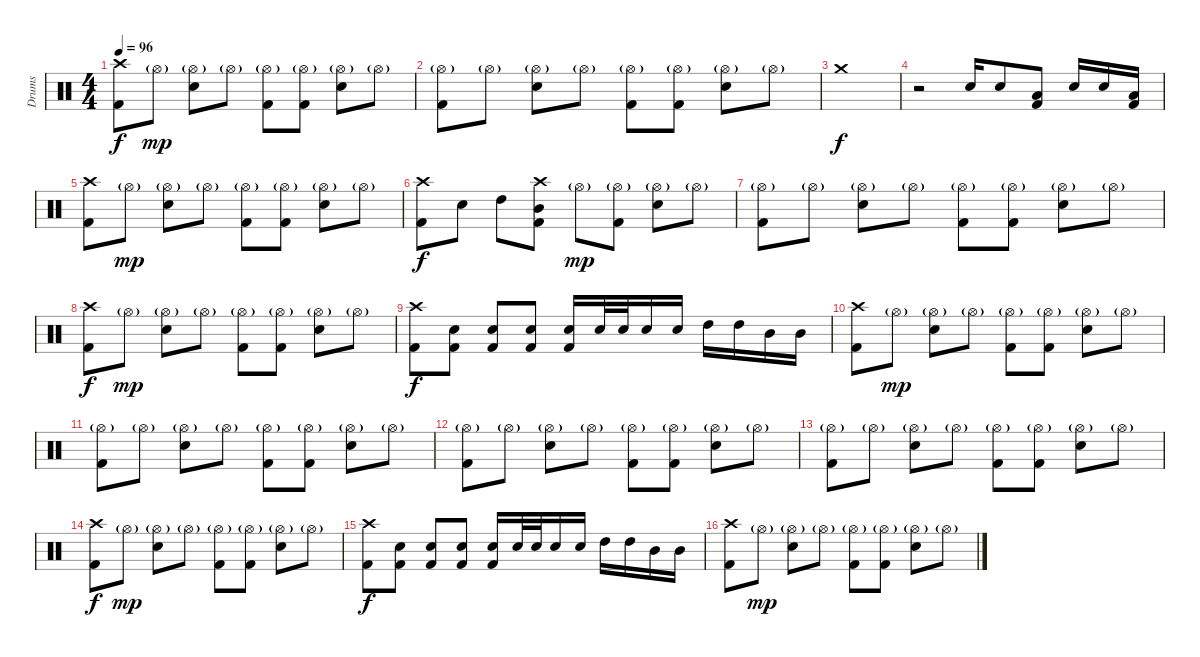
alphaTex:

\track ("Drums" "Drums") {instrument percussion}
\staff {score}
\articulation defaults
\ts (4 4)
\tempo 96
\clef neutral
\ks c
("Crash high (hit)" "Kick (hit) 2").8{dy f} "Hi-Hat (open)"{g}.8{dy mp} ("Hi-Hat (open)"{g} "Electric Snare (hit)").8 "Hi-Hat (open)"{g}.8 ("Hi-Hat (open)"{g} "Kick (hit) 2").8 ("Hi-Hat (open)"{g} "Kick (hit) 2").8 ("Hi-Hat (open)"{g} "Electric Snare (hit)").8 "Hi-Hat (open)"{g}.8 |
("Hi-Hat (open)"{g} "Kick (hit) 2").8 "Hi-Hat (open)"{g}.8 ("Hi-Hat (open)"{g} "Electric Snare (hit)").8 "Hi-Hat (open)"{g}.8 ("Hi-Hat (open)"{g} "Kick (hit) 2").8 ("Hi-Hat (open)"{g} "Kick (hit) 2").8 ("Hi-Hat (open)"{g} "Electric Snare (hit)").8 "Hi-Hat (open)"{g}.8 |
"Crash medium (hit)".1{dy f} |
r.2 "Electric Snare (hit)".16 "Electric Snare (hit)".8 ("Low Tom (hit)" "Kick (hit) 2").8 "Electric Snare (hit)".16 "Electric Snare (hit)".16 ("Low Tom (hit)" "Kick (hit) 2").16 |
("Crash high (hit)" "Kick (hit) 2").8 "Hi-Hat (open)"{g}.8{dy mp} ("Hi-Hat (open)"{g} "Electric Snare (hit)").8 "Hi-Hat (open)"{g}.8 ("Hi-Hat (open)"{g} "Kick (hit) 2").8 ("Hi-Hat (open)"{g} "Kick (hit) 2").8 ("Hi-Hat (open)"{g} "Electric Snare (hit)").8 "Hi-Hat (open)"{g}.8 |
("Crash high (hit)" "Kick (hit) 2").8{dy f} "Electric Snare (hit)".8 "High Tom (hit)".8 ("Crash high (hit)" "Mid Tom (hit)" "Kick (hit) 2").8 "Hi-Hat (open)"{g}.8{dy mp} ("Hi-Hat (open)"{g} "Kick (hit) 2").8 ("Hi-Hat (open)"{g} "Electric Snare (hit)").8 "Hi-Hat (open)"{g}.8 |
("Hi-Hat (open)"{g} "Kick (hit) 2").8 "Hi-Hat (open)"{g}.8 ("Hi-Hat (open)"{g} "Electric Snare (hit)").8 "Hi-Hat (open)"{g}.8 ("Hi-Hat (open)"{g} "Kick (hit) 2").8 ("Hi-Hat (open)"{g} "Kick (hit) 2").8 ("Hi-Hat (open)"{g} "Electric Snare (hit)").8 "Hi-Hat (open)"{g}.8 |
("Crash high (hit)" "Kick (hit) 2").8{dy f} "Hi-Hat (open)"{g}.8{dy mp} ("Hi-Hat (open)"{g} "Electric Snare (hit)").8 "Hi-Hat (open)"{g}.8 ("Hi-Hat (open)"{g} "Kick (hit) 2").8 ("Hi-Hat (open)"{g} "Kick (hit) 2").8 ("Hi-Hat (open)"{g} "Electric Snare (hit)").8 "Hi-Hat (open)"{g}.8 |
("Crash high (hit)" "Kick (hit) 2").8{dy f} ("Electric Snare (hit)" "Kick (hit) 2").8 ("Electric Snare (hit)" "Kick (hit) 2").8 ("Electric Snare (hit)" "Kick (hit) 2").8 ("Electric Snare (hit)" "Kick (hit) 2").16 "Electric Snare (hit)".32 "Electric Snare (hit)".32 "Electric Snare (hit)".16 "Electric Snare (hit)".16 "High Tom (hit)".16 "High Tom (hit)".16 "Mid Tom (hit)".16 "Mid Tom (hit)".16 |
("Crash high (hit)" "Kick (hit) 2").8 "Hi-Hat (open)"{g}.8{dy mp} ("Hi-Hat (open)"{g} "Electric Snare (hit)").8 "Hi-Hat (open)"{g}.8 ("Hi-Hat (open)"{g} "Kick (hit) 2").8 ("Hi-Hat (open)"{g} "Kick (hit) 2").8 ("Hi-Hat (open)"{g} "Electric Snare (hit)").8 "Hi-Hat (open)"{g}.8 |
("Hi-Hat (open)"{g} "Kick (hit) 2").8 "Hi-Hat (open)"{g}.8 ("Hi-Hat (open)"{g} "Electric Snare (hit)").8 "Hi-Hat (open)"{g}.8 ("Hi-Hat (open)"{g} "Kick (hit) 2").8 ("Hi-Hat (open)"{g} "Kick (hit) 2").8 ("Hi-Hat (open)"{g} "Electric Snare (hit)").8 "Hi-Hat (open)"{g}.8 |
("Hi-Hat (open)"{g} "Kick (hit) 2").8 "Hi-Hat (open)"{g}.8 ("Hi-Hat (open)"{g} "Electric Snare (hit)").8 "Hi-Hat (open)"{g}.8 ("Hi-Hat (open)"{g} "Kick (hit) 2").8 ("Hi-Hat (open)"{g} "Kick (hit) 2").8 ("Hi-Hat (open)"{g} "Electric Snare (hit)").8 "Hi-Hat (open)"{g}.8 |
("Hi-Hat (open)"{g} "Kick (hit) 2").8 "Hi-Hat (open)"{g}.8 ("Hi-Hat (open)"{g} "Electric Snare (hit)").8 "Hi-Hat (open)"{g}.8 ("Hi-Hat (open)"{g} "Kick (hit) 2").8 ("Hi-Hat (open)"{g} "Kick (hit) 2").8 ("Hi-Hat (open)"{g} "Electric Snare (hit)").8 "Hi-Hat (open)"{g}.8 |
("Crash high (hit)" "Kick (hit) 2").8{dy f} "Hi-Hat (open)"{g}.8{dy mp} ("Hi-Hat (open)"{g} "Electric Snare (hit)").8 "Hi-Hat (open)"{g}.8 ("Hi-Hat (open)"{g} "Kick (hit) 2").8 ("Hi-Hat (open)"{g} "Kick (hit) 2").8 ("Hi-Hat (open)"{g} "Electric Snare (hit)").8 "Hi-Hat (open)"{g}.8 |
("Crash high (hit)" "Kick (hit) 2").8{dy f} ("Electric Snare (hit)" "Kick (hit) 2").8 ("Electric Snare (hit)" "Kick (hit) 2").8 ("Electric Snare (hit)" "Kick (hit) 2").8 ("Electric Snare (hit)" "Kick (hit) 2").16 "Electric Snare (hit)".32 "Electric Snare (hit)".32 "Electric Snare (hit)".16 "Electric Snare (hit)".16 "High Tom (hit)".16 "High Tom (hit)".16 "Mid Tom (hit)".16 "Mid Tom (hit)".16 |
("Crash high (hit)" "Kick (hit) 2").8 "Hi-Hat (open)"{g}.8{dy mp} ("Hi-Hat (open)"{g} "Electric Snare (hit)").8 "Hi-Hat (open)"{g}.8 ("Hi-Hat (open)"{g} "Kick (hit) 2").8 ("Hi-Hat (open)"{g} "Kick (hit) 2").8 ("Hi-Hat (open)"{g} "Electric Snare (hit)").8 "Hi-Hat (open)"{g}.8
